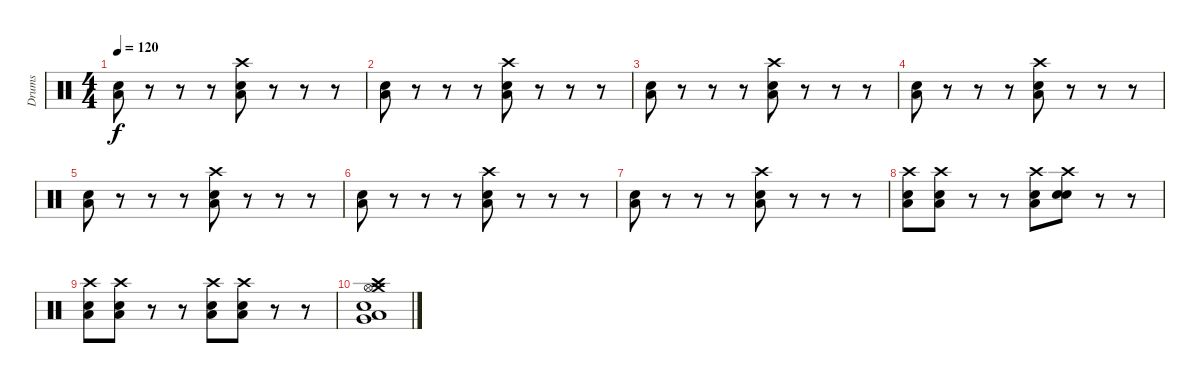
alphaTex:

\track ("Drums" "Drums") {instrument percussion}
\staff {score}
\articulation defaults
\ts (4 4)
\tempo 120
\clef neutral
\ks c
("Electric Snare (hit)" "Low Floor Tom (hit)").8{dy f} r.8 r.8 r.8 ("Crash high (hit)" "Electric Snare (hit)" "Low Floor Tom (hit)").8 r.8 r.8 r.8 |
("Electric Snare (hit)" "Low Floor Tom (hit)").8 r.8 r.8 r.8 ("Crash high (hit)" "Electric Snare (hit)" "Low Floor Tom (hit)").8 r.8 r.8 r.8 |
("Electric Snare (hit)" "Low Floor Tom (hit)").8 r.8 r.8 r.8 ("Crash high (hit)" "Electric Snare (hit)" "Low Floor Tom (hit)").8 r.8 r.8 r.8 |
("Electric Snare (hit)" "Low Floor Tom (hit)").8 r.8 r.8 r.8 ("Crash high (hit)" "Electric Snare (hit)" "Low Floor Tom (hit)").8 r.8 r.8 r.8 |
("Electric Snare (hit)" "Low Floor Tom (hit)").8 r.8 r.8 r.8 ("Crash high (hit)" "Electric Snare (hit)" "Low Floor Tom (hit)").8 r.8 r.8 r.8 |
("Electric Snare (hit)" "Low Floor Tom (hit)").8 r.8 r.8 r.8 ("Crash high (hit)" "Electric Snare (hit)" "Low Floor Tom (hit)").8 r.8 r.8 r.8 |
("Electric Snare (hit)" "Low Floor Tom (hit)").8 r.8 r.8 r.8 ("Crash high (hit)" "Electric Snare (hit)" "Low Floor Tom (hit)").8 r.8 r.8 r.8 |
("Crash high (hit)" "Electric Snare (hit)" "Low Floor Tom (hit)").8 ("Crash high (hit)" "Electric Snare (hit)" "Low Floor Tom (hit)").8 r.8 r.8 ("Crash high (hit)" "Electric Snare (hit)" "Low Floor Tom (hit)").8 ("Crash high (hit)" "Electric Snare (hit)" "Snare (hit)").8 r.8 r.8 |
("Crash high (hit)" "Electric Snare (hit)" "Low Floor Tom (hit)").8 ("Crash high (hit)" "Electric Snare (hit)" "Low Floor Tom (hit)").8 r.8 r.8 ("Crash high (hit)" "Electric Snare (hit)" "Low Floor Tom (hit)").8 ("Crash high (hit)" "Electric Snare (hit)" "Low Floor Tom (hit)").8 r.8 r.8 |
("Crash high (hit)" "Hi-Hat (open)" "Crash medium (hit)" "Electric Snare (hit)" "Very Low Tom (hit)" "Low Floor Tom (hit)").1
